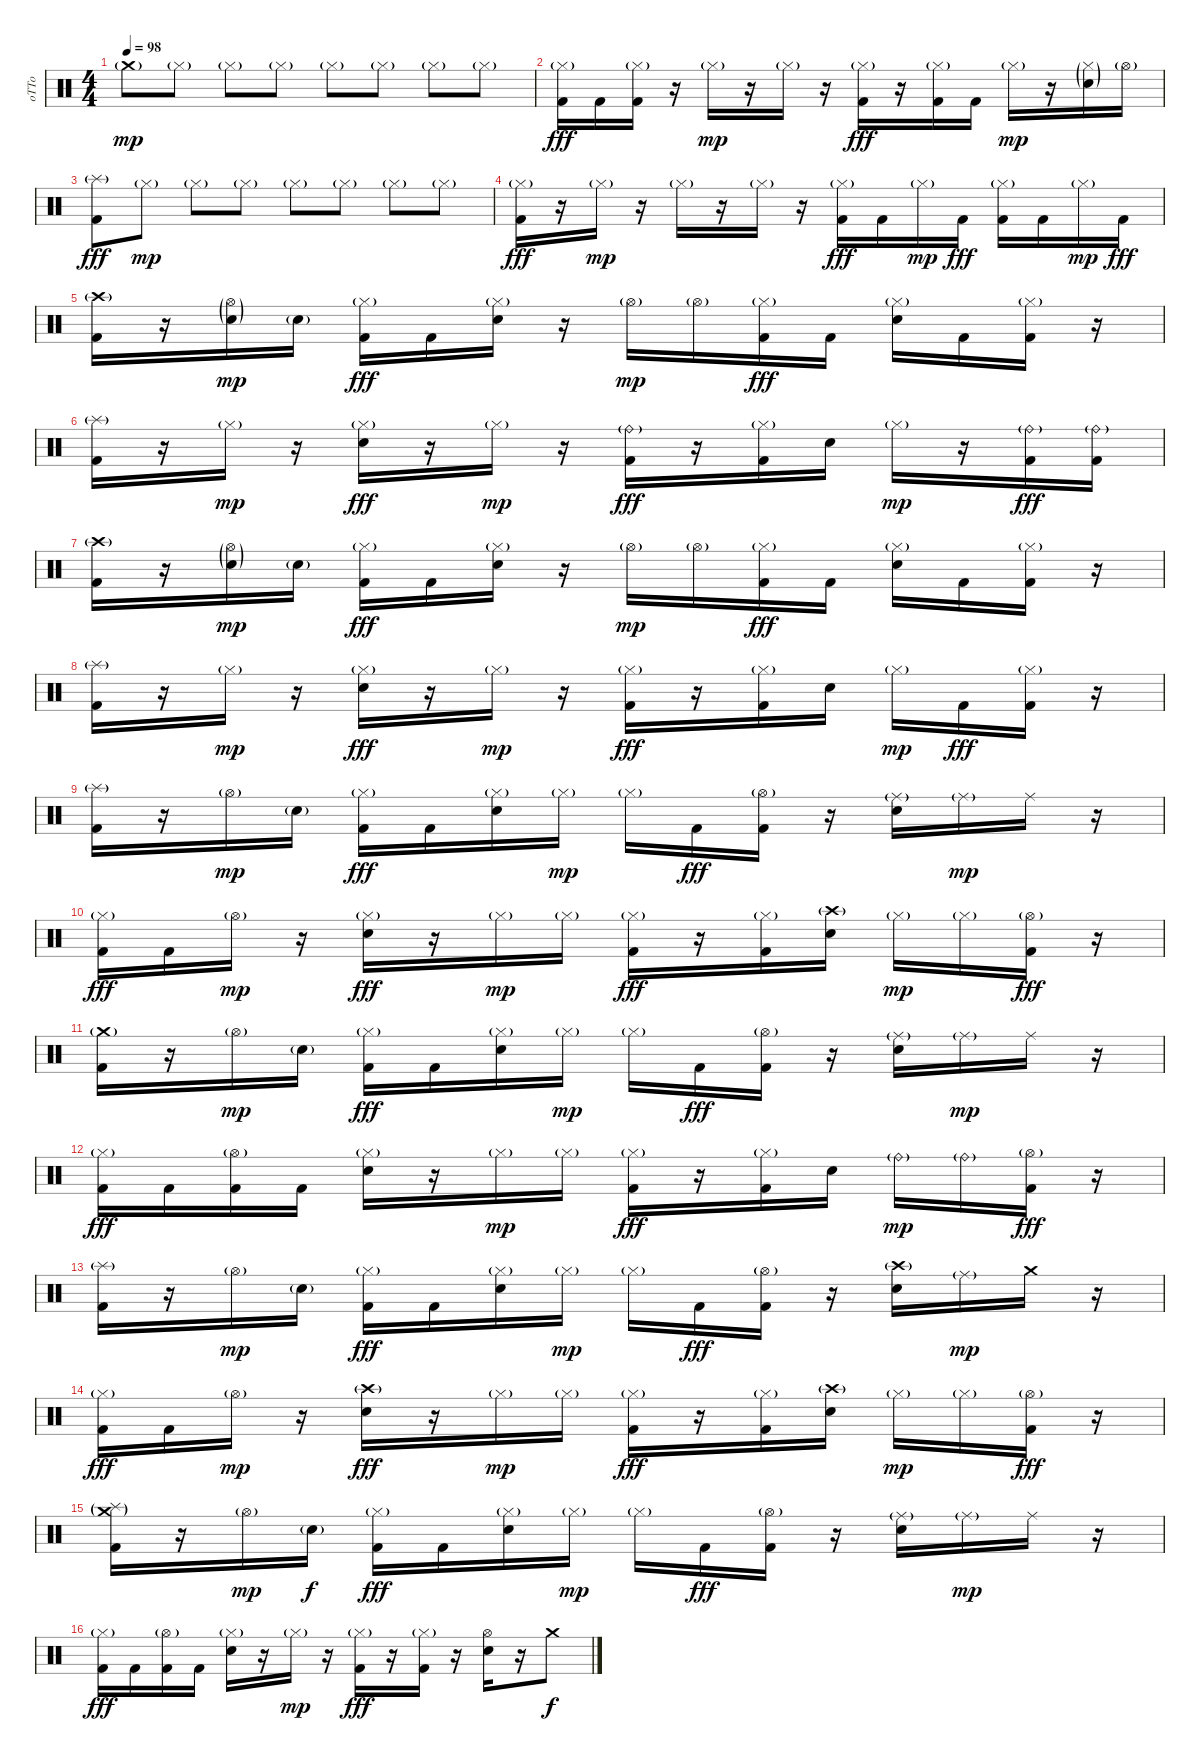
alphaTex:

\track ("oTTo" "oTTo") {instrument percussion}
\staff {score}
\articulation defaults
\ts (4 4)
\tempo 98
\clef neutral
\ks c "Crash medium (hit)"{g}.8{dy mp} "Hi-Hat (closed)"{g}.8 "Hi-Hat (closed)"{g}.8 "Hi-Hat (closed)"{g}.8 "Hi-Hat (closed)"{g}.8 "Hi-Hat (closed)"{g}.8 "Hi-Hat (closed)"{g}.8 "Hi-Hat (closed)"{g}.8
|
("Hi-Hat (closed)"{g} "Kick (hit) 2").16{dy fff} "Kick (hit) 2".16 ("Hi-Hat (closed)"{g} "Kick (hit) 2").16 r.16 "Hi-Hat (closed)"{g}.16{dy mp} r.16 "Hi-Hat (closed)"{g}.16 r.16 ("Hi-Hat (closed)"{g} "Kick (hit) 2").16{dy fff} r.16 ("Hi-Hat (closed)"{g} "Kick (hit) 2").16 "Kick (hit) 2".16 "Hi-Hat (closed)"{g}.16{dy mp} r.16 ("Hi-Hat (closed)"{g} "Snare (hit) 2"{g}).16 "Hi-Hat (open)"{g}.16 |
("Splash (hit)"{g} "Kick (hit) 2").8{dy fff} "Hi-Hat (closed)"{g}.8{dy mp} "Hi-Hat (closed)"{g}.8 "Hi-Hat (closed)"{g}.8 "Hi-Hat (closed)"{g}.8 "Hi-Hat (closed)"{g}.8 "Hi-Hat (closed)"{g}.8 "Hi-Hat (closed)"{g}.8 |
("Hi-Hat (closed)"{g} "Kick (hit) 2").16{dy fff} r.16 "Hi-Hat (closed)"{g}.16{dy mp} r.16 "Hi-Hat (closed)"{g}.16 r.16 "Hi-Hat (closed)"{g}.16 r.16 ("Hi-Hat (closed)"{g} "Kick (hit) 2").16{dy fff} "Kick (hit) 2".16 "Hi-Hat (closed)"{g}.16{dy mp} "Kick (hit) 2".16{dy fff} ("Hi-Hat (closed)"{g} "Kick (hit) 2").16 "Kick (hit) 2".16 "Hi-Hat (closed)"{g}.16{dy mp} "Kick (hit) 2".16{dy fff} |
("Crash high (hit)"{g} "Kick (hit) 2").16 r.16 ("Hi-Hat (open)"{g} "Snare (hit) 2"{g}).16{dy mp} "Snare (hit) 2"{g}.16 ("Hi-Hat (closed)"{g} "Kick (hit) 2").16{dy fff} "Kick (hit) 2".16 ("Hi-Hat (closed)"{g} "Snare (hit) 2").16 r.16 "Hi-Hat (open)"{g}.16{dy mp} "Hi-Hat (open)"{g}.16 ("Hi-Hat (closed)"{g} "Kick (hit) 2").16{dy fff} "Kick (hit) 2".16 ("Hi-Hat (closed)"{g} "Snare (hit) 2").16 "Kick (hit) 2".16 ("Hi-Hat (closed)"{g} "Kick (hit) 2").16 r.16 |
("Splash (hit)"{g} "Kick (hit) 2").16 r.16 "Hi-Hat (closed)"{g}.16{dy mp} r.16 ("Hi-Hat (closed)"{g} "Snare (hit) 2").16{dy fff} r.16 "Hi-Hat (closed)"{g}.16{dy mp} r.16 ("Ride (bell)"{g} "Kick (hit) 2").16{dy fff} r.16 ("Hi-Hat (closed)"{g} "Kick (hit) 2").16 "Snare (hit) 2".16 "Hi-Hat (closed)"{g}.16{dy mp} r.16 ("Ride (bell)"{g} "Kick (hit) 2").16{dy fff} ("Ride (bell)"{g} "Kick (hit) 2").16 |
("Crash high (hit)"{g} "Kick (hit) 2").16 r.16 ("Hi-Hat (open)"{g} "Snare (hit) 2"{g}).16{dy mp} "Snare (hit) 2"{g}.16 ("Hi-Hat (closed)"{g} "Kick (hit) 2").16{dy fff} "Kick (hit) 2".16 ("Hi-Hat (closed)"{g} "Snare (hit) 2").16 r.16 "Hi-Hat (open)"{g}.16{dy mp} "Hi-Hat (open)"{g}.16 ("Hi-Hat (closed)"{g} "Kick (hit) 2").16{dy fff} "Kick (hit) 2".16 ("Hi-Hat (closed)"{g} "Snare (hit) 2").16 "Kick (hit) 2".16 ("Hi-Hat (closed)"{g} "Kick (hit) 2").16 r.16 |
("Splash (hit)"{g} "Kick (hit) 2").16 r.16 "Hi-Hat (closed)"{g}.16{dy mp} r.16 ("Hi-Hat (closed)"{g} "Snare (hit) 2").16{dy fff} r.16 "Hi-Hat (closed)"{g}.16{dy mp} r.16 ("Hi-Hat (closed)"{g} "Kick (hit) 2").16{dy fff} r.16 ("Hi-Hat (closed)"{g} "Kick (hit) 2").16 "Snare (hit) 2".16 "Hi-Hat (closed)"{g}.16{dy mp} "Kick (hit) 2".16{dy fff} ("Hi-Hat (closed)"{g} "Kick (hit) 2").16 r.16 |
("Splash (hit)"{g} "Kick (hit) 2").16 r.16 "Hi-Hat (open)"{g}.16{dy mp} "Snare (hit) 2"{g}.16 ("Hi-Hat (closed)"{g} "Kick (hit) 2").16{dy fff} "Kick (hit) 2".16 ("Hi-Hat (closed)"{g} "Snare (hit) 2").16 "Hi-Hat (closed)"{g}.16{dy mp} "Hi-Hat (closed)"{g}.16 "Kick (hit) 2".16{dy fff} ("Hi-Hat (open)"{g} "Kick (hit) 2").16 r.16 ("Ride (middle)"{g} "Snare (hit) 2").16 "Ride (middle)"{g}.16{dy mp} "Ride (middle)".16 r.16 |
("Hi-Hat (closed)"{g} "Kick (hit) 2").16{dy fff} "Kick (hit) 2".16 "Hi-Hat (open)"{g}.16{dy mp} r.16 ("Hi-Hat (closed)"{g} "Snare (hit) 2").16{dy fff} r.16 "Hi-Hat (closed)"{g}.16{dy mp} "Hi-Hat (closed)"{g}.16 ("Hi-Hat (closed)"{g} "Kick (hit) 2").16{dy fff} r.16 ("Hi-Hat (closed)"{g} "Kick (hit) 2").16 ("Crash high (hit)"{g} "Snare (hit) 2").16 "Hi-Hat (closed)"{g}.16{dy mp} "Hi-Hat (closed)"{g}.16 ("Hi-Hat (open)"{g} "Kick (hit) 2").16{dy fff} r.16 |
("Crash medium (hit)"{g} "Kick (hit) 2").16 r.16 "Hi-Hat (open)"{g}.16{dy mp} "Snare (hit) 2"{g}.16 ("Hi-Hat (closed)"{g} "Kick (hit) 2").16{dy fff} "Kick (hit) 2".16 ("Hi-Hat (closed)"{g} "Snare (hit) 2").16 "Hi-Hat (closed)"{g}.16{dy mp} "Hi-Hat (closed)"{g}.16 "Kick (hit) 2".16{dy fff} ("Hi-Hat (open)"{g} "Kick (hit) 2").16 r.16 ("Ride (middle)"{g} "Snare (hit) 2").16 "Ride (middle)"{g}.16{dy mp} "Ride (middle)".16 r.16 |
("Hi-Hat (closed)"{g} "Kick (hit) 2").16{dy fff} "Kick (hit) 2".16 ("Hi-Hat (open)"{g} "Kick (hit) 2").16 "Kick (hit) 2".16 ("Hi-Hat (closed)"{g} "Snare (hit) 2").16 r.16 "Hi-Hat (closed)"{g}.16{dy mp} "Hi-Hat (closed)"{g}.16 ("Hi-Hat (closed)"{g} "Kick (hit) 2").16{dy fff} r.16 ("Hi-Hat (closed)"{g} "Kick (hit) 2").16 "Snare (hit) 2".16 "Ride (bell)"{g}.16{dy mp} "Ride (bell)"{g}.16 ("Hi-Hat (open)"{g} "Kick (hit) 2").16{dy fff} r.16 |
("Splash (hit)"{g} "Kick (hit) 2").16 r.16 "Hi-Hat (open)"{g}.16{dy mp} "Snare (hit) 2"{g}.16 ("Hi-Hat (closed)"{g} "Kick (hit) 2").16{dy fff} "Kick (hit) 2".16 ("Hi-Hat (closed)"{g} "Snare (hit) 2").16 "Hi-Hat (closed)"{g}.16{dy mp} "Hi-Hat (closed)"{g}.16 "Kick (hit) 2".16{dy fff} ("Hi-Hat (open)"{g} "Kick (hit) 2").16 r.16 ("Crash high (hit)"{g} "Snare (hit) 2").16 "Ride (middle)"{g}.16{dy mp} "Crash medium (hit)".16 r.16 |
("Hi-Hat (closed)"{g} "Kick (hit) 2").16{dy fff} "Kick (hit) 2".16 "Hi-Hat (open)"{g}.16{dy mp} r.16 ("Crash high (hit)"{g} "Snare (hit) 2").16{dy fff} r.16 "Hi-Hat (closed)"{g}.16{dy mp} "Hi-Hat (closed)"{g}.16 ("Hi-Hat (closed)"{g} "Kick (hit) 2").16{dy fff} r.16 ("Hi-Hat (closed)"{g} "Kick (hit) 2").16 ("Crash high (hit)"{g} "Snare (hit) 2").16 "Hi-Hat (closed)"{g}.16{dy mp} "Hi-Hat (closed)"{g}.16 ("Hi-Hat (open)"{g} "Kick (hit) 2").16{dy fff} r.16 |
("Splash (hit)"{g} "Crash medium (hit)"{g} "Kick (hit) 2").16 r.16 "Hi-Hat (open)"{g}.16{dy mp} "Snare (hit) 2"{g}.16{dy f} ("Hi-Hat (closed)"{g} "Kick (hit) 2").16{dy fff} "Kick (hit) 2".16 ("Hi-Hat (closed)"{g} "Snare (hit) 2").16 "Hi-Hat (closed)"{g}.16{dy mp} "Hi-Hat (closed)"{g}.16 "Kick (hit) 2".16{dy fff} ("Hi-Hat (open)"{g} "Kick (hit) 2").16 r.16 ("Ride (middle)"{g} "Snare (hit) 2").16 "Ride (middle)"{g}.16{dy mp} "Ride (middle)".16 r.16 |
("Hi-Hat (closed)"{g} "Kick (hit) 2").16{dy fff} "Kick (hit) 2".16 ("Hi-Hat (open)"{g} "Kick (hit) 2").16 "Kick (hit) 2".16 ("Hi-Hat (closed)"{g} "Snare (hit) 2").16 r.16 "Hi-Hat (closed)"{g}.16{dy mp} r.16 ("Hi-Hat (closed)"{g} "Kick (hit) 2").16{dy fff} r.16 ("Hi-Hat (closed)"{g} "Kick (hit) 2").16 r.16 ("Hi-Hat (open)" "Snare (hit) 2").16 r.16 "Crash medium (hit)".8{dy f}
